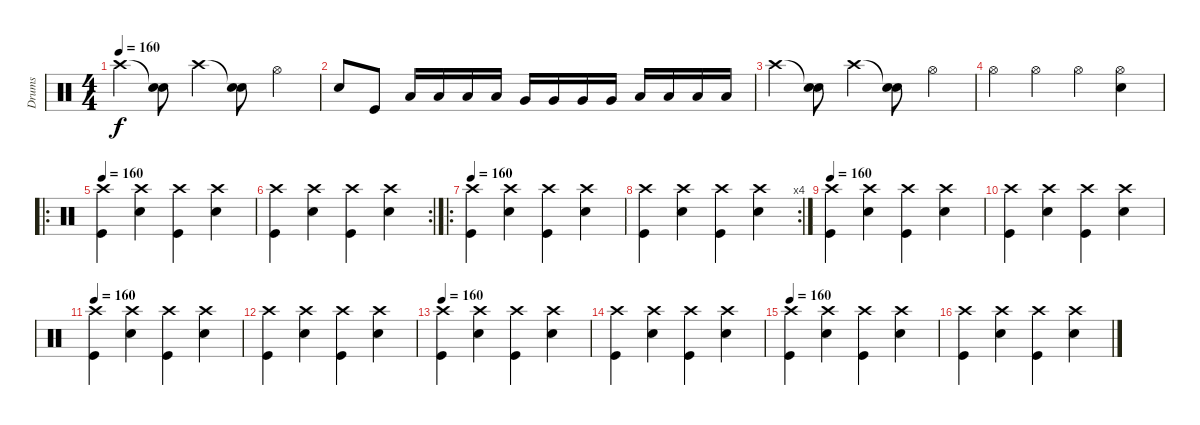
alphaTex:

\track ("Drums" "Drums") {instrument percussion}
\staff {score}
\articulation defaults
\ts (4 4)
\tempo 160
\clef neutral
\ks c "Crash high (hit)".4{dy f}
("Snare (hit)"{t} "Electric Snare (hit)").8 "Crash high (hit)".4 ("Snare (hit)"{t} "Electric Snare (hit)").8 "Hi-Hat (open)".4 |
"Snare (hit) 2".8 "Kick (hit)".8 "Low Tom (hit)".16 "Low Tom (hit)".16 "Low Tom (hit)".16 "Low Tom (hit)".16 "Very Low Tom (hit)".16 "Very Low Tom (hit)".16 "Very Low Tom (hit)".16 "Very Low Tom (hit)".16 "Low Floor Tom (hit)".16 "Low Floor Tom (hit)".16 "Low Floor Tom (hit)".16 "Low Floor Tom (hit)".16 |
"Crash high (hit)".4 ("Snare (hit)"{t} "Electric Snare (hit)").8 "Crash high (hit)".4 ("Snare (hit)"{t} "Electric Snare (hit)").8 "Hi-Hat (open)".4 |
"Hi-Hat (open)".4 "Hi-Hat (open)".4 "Hi-Hat (open)".4 ("Snare (hit) 2" "Hi-Hat (open)").4 |
\ro
\tempo 160
("Crash high (hit)" "Kick (hit)").4 ("Crash high (hit)" "Snare (hit) 2").4 ("Crash high (hit)" "Kick (hit)").4 ("Crash high (hit)" "Snare (hit) 2").4 |
\rc 2
("Crash high (hit)" "Kick (hit)").4 ("Crash high (hit)" "Snare (hit) 2").4 ("Crash high (hit)" "Kick (hit)").4 ("Crash high (hit)" "Snare (hit) 2").4 |
\ro
\tempo 160
("Crash high (hit)" "Kick (hit)").4 ("Crash high (hit)" "Snare (hit) 2").4 ("Crash high (hit)" "Kick (hit)").4 ("Crash high (hit)" "Snare (hit) 2").4 |
\rc 4
("Crash high (hit)" "Kick (hit)").4 ("Crash high (hit)" "Snare (hit) 2").4 ("Crash high (hit)" "Kick (hit)").4 ("Crash high (hit)" "Snare (hit) 2").4 |
\tempo 160
("Crash high (hit)" "Kick (hit)").4 ("Crash high (hit)" "Snare (hit) 2").4 ("Crash high (hit)" "Kick (hit)").4 ("Crash high (hit)" "Snare (hit) 2").4 |
("Crash high (hit)" "Kick (hit)").4 ("Crash high (hit)" "Snare (hit) 2").4 ("Crash high (hit)" "Kick (hit)").4 ("Crash high (hit)" "Snare (hit) 2").4 |
\tempo 160
("Crash high (hit)" "Kick (hit)").4 ("Crash high (hit)" "Snare (hit) 2").4 ("Crash high (hit)" "Kick (hit)").4 ("Crash high (hit)" "Snare (hit) 2").4 |
("Crash high (hit)" "Kick (hit)").4 ("Crash high (hit)" "Snare (hit) 2").4 ("Crash high (hit)" "Kick (hit)").4 ("Crash high (hit)" "Snare (hit) 2").4 |
\tempo 160
("Crash high (hit)" "Kick (hit)").4 ("Crash high (hit)" "Snare (hit) 2").4 ("Crash high (hit)" "Kick (hit)").4 ("Crash high (hit)" "Snare (hit) 2").4 |
("Crash high (hit)" "Kick (hit)").4 ("Crash high (hit)" "Snare (hit) 2").4 ("Crash high (hit)" "Kick (hit)").4 ("Crash high (hit)" "Snare (hit) 2").4 |
\tempo 160
("Crash high (hit)" "Kick (hit)").4 ("Crash high (hit)" "Snare (hit) 2").4 ("Crash high (hit)" "Kick (hit)").4 ("Crash high (hit)" "Snare (hit) 2").4 |
("Crash high (hit)" "Kick (hit)").4 ("Crash high (hit)" "Snare (hit) 2").4 ("Crash high (hit)" "Kick (hit)").4 ("Crash high (hit)" "Snare (hit) 2").4
